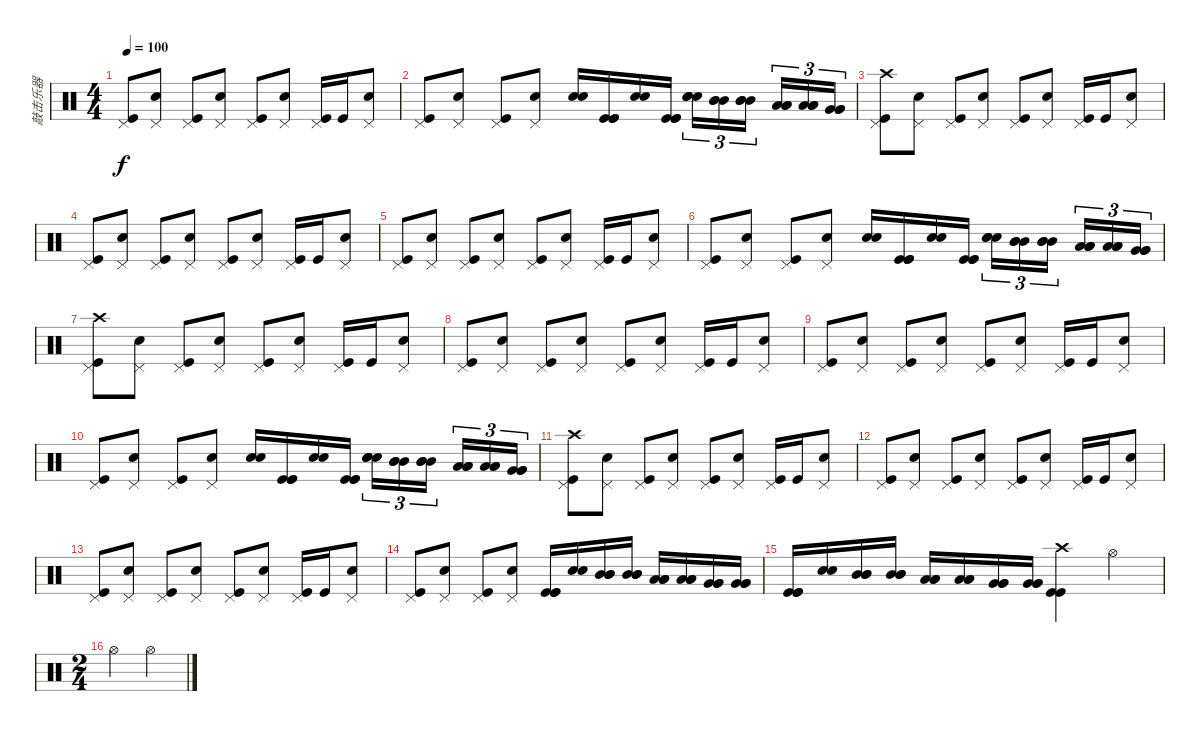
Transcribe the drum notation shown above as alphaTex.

\track ("敲击乐器" "敲击乐器") {instrument percussion}
\staff {score}
\articulation defaults
\ts (4 4)
\tempo 100
\clef neutral
\ks c
("Pedal Hi-Hat (hit)" "Kick (hit)").8{dy f} ("Pedal Hi-Hat (hit)" "Snare (hit) 2").8 ("Pedal Hi-Hat (hit)" "Kick (hit)").8 ("Pedal Hi-Hat (hit)" "Snare (hit) 2").8 ("Pedal Hi-Hat (hit)" "Kick (hit)").8 ("Pedal Hi-Hat (hit)" "Snare (hit) 2").8 ("Pedal Hi-Hat (hit)" "Kick (hit)").16 "Kick (hit)".16 ("Pedal Hi-Hat (hit)" "Snare (hit) 2").8 |
("Pedal Hi-Hat (hit)" "Kick (hit)").8 ("Pedal Hi-Hat (hit)" "Snare (hit) 2").8 ("Pedal Hi-Hat (hit)" "Kick (hit)").8 ("Pedal Hi-Hat (hit)" "Snare (hit) 2").8 ("Snare (hit) 2" "Snare (hit) 2").16 ("Kick (hit)" "Kick (hit)" "Kick (hit)").16 ("Snare (hit) 2" "Snare (hit) 2").16 ("Kick (hit)" "Kick (hit)" "Kick (hit)").16 ("Snare (hit) 2" "Snare (hit) 2" "Snare (hit) 2").16{tu (3 2)} ("Mid Tom (hit)" "Mid Tom (hit)" "Mid Tom (hit)").16{tu (3 2)} ("Mid Tom (hit)" "Mid Tom (hit)" "Mid Tom (hit)").16{tu (3 2) beam splitsecondary} ("Low Tom (hit)" "Low Tom (hit)" "Low Tom (hit)").16{tu (3 2)} ("Low Tom (hit)" "Low Tom (hit)" "Low Tom (hit)").16{tu (3 2)} ("Very Low Tom (hit)" "Very Low Tom (hit)" "Very Low Tom (hit)").16{tu (3 2)} |
("Crash high (hit)" "Pedal Hi-Hat (hit)" "Kick (hit)").8 ("Pedal Hi-Hat (hit)" "Snare (hit) 2").8 ("Pedal Hi-Hat (hit)" "Kick (hit)").8 ("Pedal Hi-Hat (hit)" "Snare (hit) 2").8 ("Pedal Hi-Hat (hit)" "Kick (hit)").8 ("Pedal Hi-Hat (hit)" "Snare (hit) 2").8 ("Pedal Hi-Hat (hit)" "Kick (hit)").16 "Kick (hit)".16 ("Pedal Hi-Hat (hit)" "Snare (hit) 2").8 |
("Pedal Hi-Hat (hit)" "Kick (hit)").8 ("Pedal Hi-Hat (hit)" "Snare (hit) 2").8 ("Pedal Hi-Hat (hit)" "Kick (hit)").8 ("Pedal Hi-Hat (hit)" "Snare (hit) 2").8 ("Pedal Hi-Hat (hit)" "Kick (hit)").8 ("Pedal Hi-Hat (hit)" "Snare (hit) 2").8 ("Pedal Hi-Hat (hit)" "Kick (hit)").16 "Kick (hit)".16 ("Pedal Hi-Hat (hit)" "Snare (hit) 2").8 |
("Pedal Hi-Hat (hit)" "Kick (hit)").8 ("Pedal Hi-Hat (hit)" "Snare (hit) 2").8 ("Pedal Hi-Hat (hit)" "Kick (hit)").8 ("Pedal Hi-Hat (hit)" "Snare (hit) 2").8 ("Pedal Hi-Hat (hit)" "Kick (hit)").8 ("Pedal Hi-Hat (hit)" "Snare (hit) 2").8 ("Pedal Hi-Hat (hit)" "Kick (hit)").16 "Kick (hit)".16 ("Pedal Hi-Hat (hit)" "Snare (hit) 2").8 |
("Pedal Hi-Hat (hit)" "Kick (hit)").8 ("Pedal Hi-Hat (hit)" "Snare (hit) 2").8 ("Pedal Hi-Hat (hit)" "Kick (hit)").8 ("Pedal Hi-Hat (hit)" "Snare (hit) 2").8 ("Snare (hit) 2" "Snare (hit) 2").16 ("Kick (hit)" "Kick (hit)" "Kick (hit)").16 ("Snare (hit) 2" "Snare (hit) 2").16 ("Kick (hit)" "Kick (hit)" "Kick (hit)").16 ("Snare (hit) 2" "Snare (hit) 2" "Snare (hit) 2").16{tu (3 2)} ("Mid Tom (hit)" "Mid Tom (hit)" "Mid Tom (hit)").16{tu (3 2)} ("Mid Tom (hit)" "Mid Tom (hit)" "Mid Tom (hit)").16{tu (3 2) beam splitsecondary} ("Low Tom (hit)" "Low Tom (hit)" "Low Tom (hit)").16{tu (3 2)} ("Low Tom (hit)" "Low Tom (hit)" "Low Tom (hit)").16{tu (3 2)} ("Very Low Tom (hit)" "Very Low Tom (hit)" "Very Low Tom (hit)").16{tu (3 2)} |
("Crash high (hit)" "Pedal Hi-Hat (hit)" "Kick (hit)").8 ("Pedal Hi-Hat (hit)" "Snare (hit) 2").8 ("Pedal Hi-Hat (hit)" "Kick (hit)").8 ("Pedal Hi-Hat (hit)" "Snare (hit) 2").8 ("Pedal Hi-Hat (hit)" "Kick (hit)").8 ("Pedal Hi-Hat (hit)" "Snare (hit) 2").8 ("Pedal Hi-Hat (hit)" "Kick (hit)").16 "Kick (hit)".16 ("Pedal Hi-Hat (hit)" "Snare (hit) 2").8 |
("Pedal Hi-Hat (hit)" "Kick (hit)").8 ("Pedal Hi-Hat (hit)" "Snare (hit) 2").8 ("Pedal Hi-Hat (hit)" "Kick (hit)").8 ("Pedal Hi-Hat (hit)" "Snare (hit) 2").8 ("Pedal Hi-Hat (hit)" "Kick (hit)").8 ("Pedal Hi-Hat (hit)" "Snare (hit) 2").8 ("Pedal Hi-Hat (hit)" "Kick (hit)").16 "Kick (hit)".16 ("Pedal Hi-Hat (hit)" "Snare (hit) 2").8 |
("Pedal Hi-Hat (hit)" "Kick (hit)").8 ("Pedal Hi-Hat (hit)" "Snare (hit) 2").8 ("Pedal Hi-Hat (hit)" "Kick (hit)").8 ("Pedal Hi-Hat (hit)" "Snare (hit) 2").8 ("Pedal Hi-Hat (hit)" "Kick (hit)").8 ("Pedal Hi-Hat (hit)" "Snare (hit) 2").8 ("Pedal Hi-Hat (hit)" "Kick (hit)").16 "Kick (hit)".16 ("Pedal Hi-Hat (hit)" "Snare (hit) 2").8 |
("Pedal Hi-Hat (hit)" "Kick (hit)").8 ("Pedal Hi-Hat (hit)" "Snare (hit) 2").8 ("Pedal Hi-Hat (hit)" "Kick (hit)").8 ("Pedal Hi-Hat (hit)" "Snare (hit) 2").8 ("Snare (hit) 2" "Snare (hit) 2").16 ("Kick (hit)" "Kick (hit)" "Kick (hit)").16 ("Snare (hit) 2" "Snare (hit) 2").16 ("Kick (hit)" "Kick (hit)" "Kick (hit)").16 ("Snare (hit) 2" "Snare (hit) 2" "Snare (hit) 2").16{tu (3 2)} ("Mid Tom (hit)" "Mid Tom (hit)" "Mid Tom (hit)").16{tu (3 2)} ("Mid Tom (hit)" "Mid Tom (hit)" "Mid Tom (hit)").16{tu (3 2) beam splitsecondary} ("Low Tom (hit)" "Low Tom (hit)" "Low Tom (hit)").16{tu (3 2)} ("Low Tom (hit)" "Low Tom (hit)" "Low Tom (hit)").16{tu (3 2)} ("Very Low Tom (hit)" "Very Low Tom (hit)" "Very Low Tom (hit)").16{tu (3 2)} |
("Crash high (hit)" "Pedal Hi-Hat (hit)" "Kick (hit)").8 ("Pedal Hi-Hat (hit)" "Snare (hit) 2").8 ("Pedal Hi-Hat (hit)" "Kick (hit)").8 ("Pedal Hi-Hat (hit)" "Snare (hit) 2").8 ("Pedal Hi-Hat (hit)" "Kick (hit)").8 ("Pedal Hi-Hat (hit)" "Snare (hit) 2").8 ("Pedal Hi-Hat (hit)" "Kick (hit)").16 "Kick (hit)".16 ("Pedal Hi-Hat (hit)" "Snare (hit) 2").8 |
("Pedal Hi-Hat (hit)" "Kick (hit)").8 ("Pedal Hi-Hat (hit)" "Snare (hit) 2").8 ("Pedal Hi-Hat (hit)" "Kick (hit)").8 ("Pedal Hi-Hat (hit)" "Snare (hit) 2").8 ("Pedal Hi-Hat (hit)" "Kick (hit)").8 ("Pedal Hi-Hat (hit)" "Snare (hit) 2").8 ("Pedal Hi-Hat (hit)" "Kick (hit)").16 "Kick (hit)".16 ("Pedal Hi-Hat (hit)" "Snare (hit) 2").8 |
("Pedal Hi-Hat (hit)" "Kick (hit)").8 ("Pedal Hi-Hat (hit)" "Snare (hit) 2").8 ("Pedal Hi-Hat (hit)" "Kick (hit)").8 ("Pedal Hi-Hat (hit)" "Snare (hit) 2").8 ("Pedal Hi-Hat (hit)" "Kick (hit)").8 ("Pedal Hi-Hat (hit)" "Snare (hit) 2").8 ("Pedal Hi-Hat (hit)" "Kick (hit)").16 "Kick (hit)".16 ("Pedal Hi-Hat (hit)" "Snare (hit) 2").8 |
("Pedal Hi-Hat (hit)" "Kick (hit)").8 ("Pedal Hi-Hat (hit)" "Snare (hit) 2").8 ("Pedal Hi-Hat (hit)" "Kick (hit)").8 ("Pedal Hi-Hat (hit)" "Snare (hit) 2").8 ("Kick (hit)" "Kick (hit)" "Kick (hit)").16 ("Snare (hit) 2" "Snare (hit) 2").16 ("Mid Tom (hit)" "Mid Tom (hit)" "Mid Tom (hit)").16 ("Mid Tom (hit)" "Mid Tom (hit)" "Mid Tom (hit)").16 ("Low Tom (hit)" "Low Tom (hit)" "Low Tom (hit)").16 ("Low Tom (hit)" "Low Tom (hit)" "Low Tom (hit)").16 ("Very Low Tom (hit)" "Very Low Tom (hit)" "Very Low Tom (hit)").16 ("Very Low Tom (hit)" "Very Low Tom (hit)" "Very Low Tom (hit)").16 |
("Kick (hit)" "Kick (hit)" "Kick (hit)").16 ("Snare (hit) 2" "Snare (hit) 2").16 ("Mid Tom (hit)" "Mid Tom (hit)" "Mid Tom (hit)").16 ("Mid Tom (hit)" "Mid Tom (hit)" "Mid Tom (hit)").16 ("Low Tom (hit)" "Low Tom (hit)" "Low Tom (hit)").16 ("Low Tom (hit)" "Low Tom (hit)" "Low Tom (hit)").16 ("Very Low Tom (hit)" "Very Low Tom (hit)" "Very Low Tom (hit)").16 ("Very Low Tom (hit)" "Very Low Tom (hit)" "Very Low Tom (hit)").16 ("Kick (hit)" "Kick (hit)" "Crash high (hit)").4 "Hi-Hat (open)".4 |
\ts (2 4)
"Hi-Hat (open)".4 "Hi-Hat (open)".4
